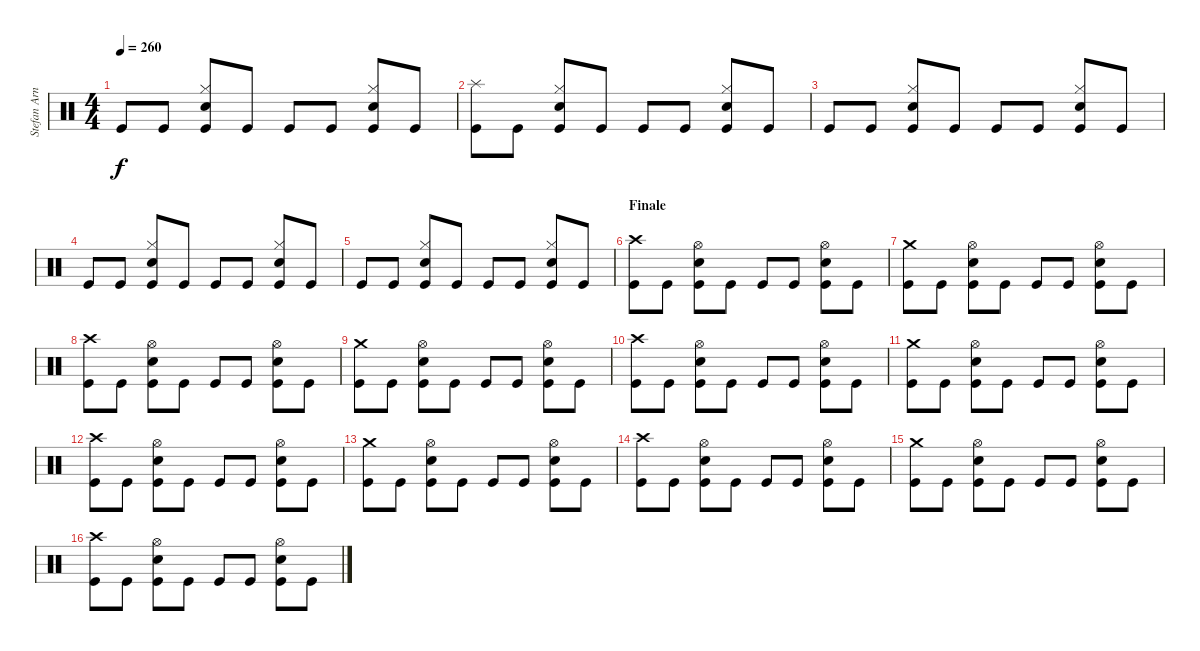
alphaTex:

\track ("Stefan Arnold" "Stefan Arn") {instrument percussion}
\staff {score}
\articulation defaults
\ts (4 4)
\tempo 260
\clef neutral
\ks c "Kick (hit)".8{dy f} "Kick (hit)".8
("Hi-Hat (closed)" "Electric Snare (hit)" "Kick (hit)").8 "Kick (hit)".8 "Kick (hit)".8 "Kick (hit)".8 ("Hi-Hat (closed)" "Electric Snare (hit)" "Kick (hit)").8 "Kick (hit)".8 |
("Splash (hit)" "Kick (hit)").8 "Kick (hit)".8 ("Hi-Hat (closed)" "Electric Snare (hit)" "Kick (hit)").8 "Kick (hit)".8 "Kick (hit)".8 "Kick (hit)".8 ("Hi-Hat (closed)" "Electric Snare (hit)" "Kick (hit)").8 "Kick (hit)".8 |
"Kick (hit)".8 "Kick (hit)".8 ("Hi-Hat (closed)" "Electric Snare (hit)" "Kick (hit)").8 "Kick (hit)".8 "Kick (hit)".8 "Kick (hit)".8 ("Hi-Hat (closed)" "Electric Snare (hit)" "Kick (hit)").8 "Kick (hit)".8 |
"Kick (hit)".8 "Kick (hit)".8 ("Hi-Hat (closed)" "Electric Snare (hit)" "Kick (hit)").8 "Kick (hit)".8 "Kick (hit)".8 "Kick (hit)".8 ("Hi-Hat (closed)" "Electric Snare (hit)" "Kick (hit)").8 "Kick (hit)".8 |
"Kick (hit)".8 "Kick (hit)".8 ("Hi-Hat (closed)" "Electric Snare (hit)" "Kick (hit)").8 "Kick (hit)".8 "Kick (hit)".8 "Kick (hit)".8 ("Hi-Hat (closed)" "Electric Snare (hit)" "Kick (hit)").8 "Kick (hit)".8 |
\section ("" "Finale")
("Crash high (hit)" "Kick (hit)").8 "Kick (hit)".8 ("Hi-Hat (open)" "Electric Snare (hit)" "Kick (hit)").8 "Kick (hit)".8 "Kick (hit)".8 "Kick (hit)".8 ("Hi-Hat (open)" "Electric Snare (hit)" "Kick (hit)").8 "Kick (hit)".8 |
("Crash medium (hit)" "Kick (hit)").8 "Kick (hit)".8 ("Hi-Hat (open)" "Electric Snare (hit)" "Kick (hit)").8 "Kick (hit)".8 "Kick (hit)".8 "Kick (hit)".8 ("Hi-Hat (open)" "Electric Snare (hit)" "Kick (hit)").8 "Kick (hit)".8 |
("Crash high (hit)" "Kick (hit)").8 "Kick (hit)".8 ("Hi-Hat (open)" "Electric Snare (hit)" "Kick (hit)").8 "Kick (hit)".8 "Kick (hit)".8 "Kick (hit)".8 ("Hi-Hat (open)" "Electric Snare (hit)" "Kick (hit)").8 "Kick (hit)".8 |
("Crash medium (hit)" "Kick (hit)").8 "Kick (hit)".8 ("Hi-Hat (open)" "Electric Snare (hit)" "Kick (hit)").8 "Kick (hit)".8 "Kick (hit)".8 "Kick (hit)".8 ("Hi-Hat (open)" "Electric Snare (hit)" "Kick (hit)").8 "Kick (hit)".8 |
("Crash high (hit)" "Kick (hit)").8 "Kick (hit)".8 ("Hi-Hat (open)" "Electric Snare (hit)" "Kick (hit)").8 "Kick (hit)".8 "Kick (hit)".8 "Kick (hit)".8 ("Hi-Hat (open)" "Electric Snare (hit)" "Kick (hit)").8 "Kick (hit)".8 |
("Crash medium (hit)" "Kick (hit)").8 "Kick (hit)".8 ("Hi-Hat (open)" "Electric Snare (hit)" "Kick (hit)").8 "Kick (hit)".8 "Kick (hit)".8 "Kick (hit)".8 ("Hi-Hat (open)" "Electric Snare (hit)" "Kick (hit)").8 "Kick (hit)".8 |
("Crash high (hit)" "Kick (hit)").8 "Kick (hit)".8 ("Hi-Hat (open)" "Electric Snare (hit)" "Kick (hit)").8 "Kick (hit)".8 "Kick (hit)".8 "Kick (hit)".8 ("Hi-Hat (open)" "Electric Snare (hit)" "Kick (hit)").8 "Kick (hit)".8 |
("Crash medium (hit)" "Kick (hit)").8 "Kick (hit)".8 ("Hi-Hat (open)" "Electric Snare (hit)" "Kick (hit)").8 "Kick (hit)".8 "Kick (hit)".8 "Kick (hit)".8 ("Hi-Hat (open)" "Electric Snare (hit)" "Kick (hit)").8 "Kick (hit)".8 |
("Crash high (hit)" "Kick (hit)").8 "Kick (hit)".8 ("Hi-Hat (open)" "Electric Snare (hit)" "Kick (hit)").8 "Kick (hit)".8 "Kick (hit)".8 "Kick (hit)".8 ("Hi-Hat (open)" "Electric Snare (hit)" "Kick (hit)").8 "Kick (hit)".8 |
("Crash medium (hit)" "Kick (hit)").8 "Kick (hit)".8 ("Hi-Hat (open)" "Electric Snare (hit)" "Kick (hit)").8 "Kick (hit)".8 "Kick (hit)".8 "Kick (hit)".8 ("Hi-Hat (open)" "Electric Snare (hit)" "Kick (hit)").8 "Kick (hit)".8 |
("Crash high (hit)" "Kick (hit)").8 "Kick (hit)".8 ("Hi-Hat (open)" "Electric Snare (hit)" "Kick (hit)").8 "Kick (hit)".8 "Kick (hit)".8 "Kick (hit)".8 ("Hi-Hat (open)" "Electric Snare (hit)" "Kick (hit)").8 "Kick (hit)".8
